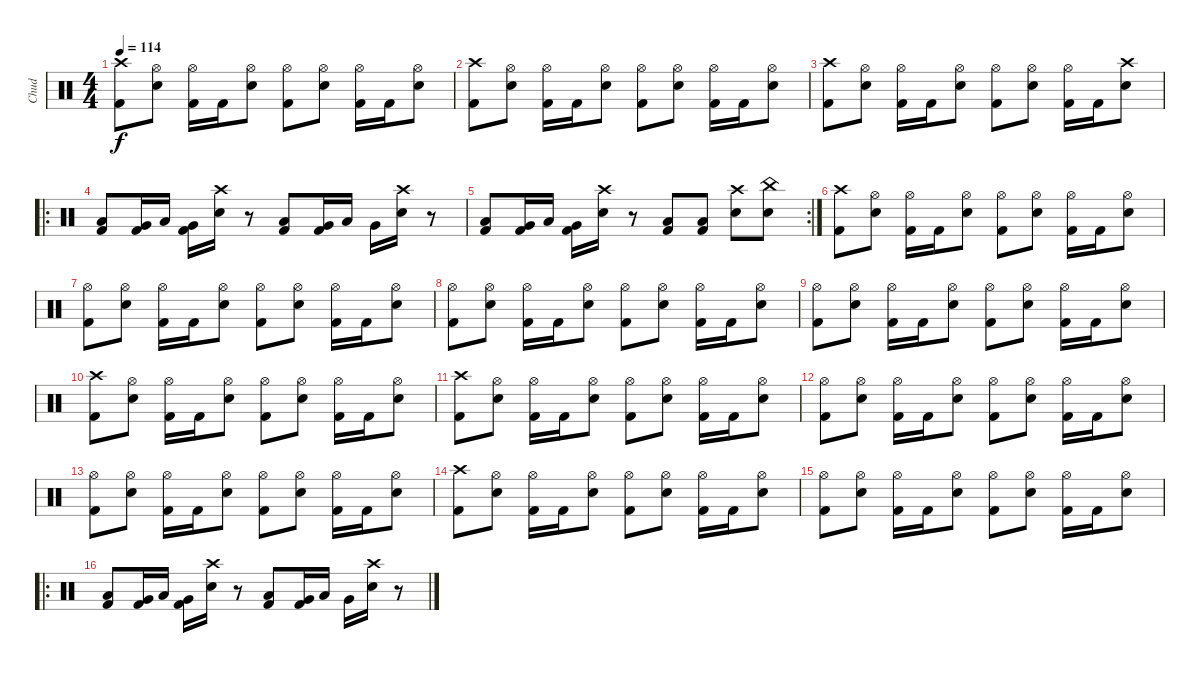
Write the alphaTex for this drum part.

\track ("Chud" "Chud") {instrument percussion}
\staff {score}
\articulation defaults
\ts (4 4)
\tempo 114
\clef neutral
\ks c
("Crash high (hit)" "Kick (hit) 2").8{dy f} ("Hi-Hat (open)" "Electric Snare (hit)").8 ("Hi-Hat (open)" "Kick (hit) 2").16 "Kick (hit) 2".16 ("Hi-Hat (open)" "Electric Snare (hit)").8 ("Hi-Hat (open)" "Kick (hit) 2").8 ("Hi-Hat (open)" "Electric Snare (hit)").8 ("Hi-Hat (open)" "Kick (hit) 2").16 "Kick (hit) 2".16 ("Hi-Hat (open)" "Electric Snare (hit)").8 |
("Crash high (hit)" "Kick (hit) 2").8 ("Hi-Hat (open)" "Electric Snare (hit)").8 ("Hi-Hat (open)" "Kick (hit) 2").16 "Kick (hit) 2".16 ("Hi-Hat (open)" "Electric Snare (hit)").8 ("Hi-Hat (open)" "Kick (hit) 2").8 ("Hi-Hat (open)" "Electric Snare (hit)").8 ("Hi-Hat (open)" "Kick (hit) 2").16 "Kick (hit) 2".16 ("Hi-Hat (open)" "Electric Snare (hit)").8 |
("Crash high (hit)" "Kick (hit) 2").8 ("Hi-Hat (open)" "Electric Snare (hit)").8 ("Hi-Hat (open)" "Kick (hit) 2").16 "Kick (hit) 2".16 ("Hi-Hat (open)" "Electric Snare (hit)").8 ("Hi-Hat (open)" "Kick (hit) 2").8 ("Hi-Hat (open)" "Electric Snare (hit)").8 ("Hi-Hat (open)" "Kick (hit) 2").16 "Kick (hit) 2".16 ("Crash high (hit)" "Electric Snare (hit)").8 |
\ro
("Low Tom (hit)" "Kick (hit) 2").8 ("Very Low Tom (hit)" "Kick (hit) 2").16 "Low Tom (hit)".16 ("Very Low Tom (hit)" "Kick (hit) 2").16 ("Crash high (hit)" "Electric Snare (hit)").16 r.8 ("Low Tom (hit)" "Kick (hit) 2").8 ("Very Low Tom (hit)" "Kick (hit) 2").16 "Low Tom (hit)".16 "Very Low Tom (hit)".16 ("Crash high (hit)" "Electric Snare (hit)").16 r.8 |
\rc 2
("Low Tom (hit)" "Kick (hit) 2").8 ("Very Low Tom (hit)" "Kick (hit) 2").16 "Low Tom (hit)".16 ("Very Low Tom (hit)" "Kick (hit) 2").16 ("Crash high (hit)" "Electric Snare (hit)").16 r.8 ("Low Tom (hit)" "Kick (hit) 2").8 ("Low Tom (hit)" "Kick (hit) 2").8 ("Crash high (hit)" "Electric Snare (hit)").8 ("China (hit)" "Electric Snare (hit)").8 |
("Crash high (hit)" "Kick (hit) 2").8 ("Hi-Hat (open)" "Electric Snare (hit)").8 ("Hi-Hat (open)" "Kick (hit) 2").16 "Kick (hit) 2".16 ("Hi-Hat (open)" "Electric Snare (hit)").8 ("Hi-Hat (open)" "Kick (hit) 2").8 ("Hi-Hat (open)" "Electric Snare (hit)").8 ("Hi-Hat (open)" "Kick (hit) 2").16 "Kick (hit) 2".16 ("Hi-Hat (open)" "Electric Snare (hit)").8 |
("Hi-Hat (open)" "Kick (hit) 2").8 ("Hi-Hat (open)" "Electric Snare (hit)").8 ("Hi-Hat (open)" "Kick (hit) 2").16 "Kick (hit) 2".16 ("Hi-Hat (open)" "Electric Snare (hit)").8 ("Hi-Hat (open)" "Kick (hit) 2").8 ("Hi-Hat (open)" "Electric Snare (hit)").8 ("Hi-Hat (open)" "Kick (hit) 2").16 "Kick (hit) 2".16 ("Hi-Hat (open)" "Electric Snare (hit)").8 |
("Hi-Hat (open)" "Kick (hit) 2").8 ("Hi-Hat (open)" "Electric Snare (hit)").8 ("Hi-Hat (open)" "Kick (hit) 2").16 "Kick (hit) 2".16 ("Hi-Hat (open)" "Electric Snare (hit)").8 ("Hi-Hat (open)" "Kick (hit) 2").8 ("Hi-Hat (open)" "Electric Snare (hit)").8 ("Hi-Hat (open)" "Kick (hit) 2").16 "Kick (hit) 2".16 ("Hi-Hat (open)" "Electric Snare (hit)").8 |
("Hi-Hat (open)" "Kick (hit) 2").8 ("Hi-Hat (open)" "Electric Snare (hit)").8 ("Hi-Hat (open)" "Kick (hit) 2").16 "Kick (hit) 2".16 ("Hi-Hat (open)" "Electric Snare (hit)").8 ("Hi-Hat (open)" "Kick (hit) 2").8 ("Hi-Hat (open)" "Electric Snare (hit)").8 ("Hi-Hat (open)" "Kick (hit) 2").16 "Kick (hit) 2".16 ("Hi-Hat (open)" "Electric Snare (hit)").8 |
("Crash high (hit)" "Kick (hit) 2").8 ("Hi-Hat (open)" "Electric Snare (hit)").8 ("Hi-Hat (open)" "Kick (hit) 2").16 "Kick (hit) 2".16 ("Hi-Hat (open)" "Electric Snare (hit)").8 ("Hi-Hat (open)" "Kick (hit) 2").8 ("Hi-Hat (open)" "Electric Snare (hit)").8 ("Hi-Hat (open)" "Kick (hit) 2").16 "Kick (hit) 2".16 ("Hi-Hat (open)" "Electric Snare (hit)").8 |
("Crash high (hit)" "Kick (hit) 2").8 ("Hi-Hat (open)" "Electric Snare (hit)").8 ("Hi-Hat (open)" "Kick (hit) 2").16 "Kick (hit) 2".16 ("Hi-Hat (open)" "Electric Snare (hit)").8 ("Hi-Hat (open)" "Kick (hit) 2").8 ("Hi-Hat (open)" "Electric Snare (hit)").8 ("Hi-Hat (open)" "Kick (hit) 2").16 "Kick (hit) 2".16 ("Hi-Hat (open)" "Electric Snare (hit)").8 |
("Hi-Hat (open)" "Kick (hit) 2").8 ("Hi-Hat (open)" "Electric Snare (hit)").8 ("Hi-Hat (open)" "Kick (hit) 2").16 "Kick (hit) 2".16 ("Hi-Hat (open)" "Electric Snare (hit)").8 ("Hi-Hat (open)" "Kick (hit) 2").8 ("Hi-Hat (open)" "Electric Snare (hit)").8 ("Hi-Hat (open)" "Kick (hit) 2").16 "Kick (hit) 2".16 ("Hi-Hat (open)" "Electric Snare (hit)").8 |
("Hi-Hat (open)" "Kick (hit) 2").8 ("Hi-Hat (open)" "Electric Snare (hit)").8 ("Hi-Hat (open)" "Kick (hit) 2").16 "Kick (hit) 2".16 ("Hi-Hat (open)" "Electric Snare (hit)").8 ("Hi-Hat (open)" "Kick (hit) 2").8 ("Hi-Hat (open)" "Electric Snare (hit)").8 ("Hi-Hat (open)" "Kick (hit) 2").16 "Kick (hit) 2".16 ("Hi-Hat (open)" "Electric Snare (hit)").8 |
("Crash high (hit)" "Kick (hit) 2").8 ("Hi-Hat (open)" "Electric Snare (hit)").8 ("Hi-Hat (open)" "Kick (hit) 2").16 "Kick (hit) 2".16 ("Hi-Hat (open)" "Electric Snare (hit)").8 ("Hi-Hat (open)" "Kick (hit) 2").8 ("Hi-Hat (open)" "Electric Snare (hit)").8 ("Hi-Hat (open)" "Kick (hit) 2").16 "Kick (hit) 2".16 ("Hi-Hat (open)" "Electric Snare (hit)").8 |
("Hi-Hat (open)" "Kick (hit) 2").8 ("Hi-Hat (open)" "Electric Snare (hit)").8 ("Hi-Hat (open)" "Kick (hit) 2").16 "Kick (hit) 2".16 ("Hi-Hat (open)" "Electric Snare (hit)").8 ("Hi-Hat (open)" "Kick (hit) 2").8 ("Hi-Hat (open)" "Electric Snare (hit)").8 ("Hi-Hat (open)" "Kick (hit) 2").16 "Kick (hit) 2".16 ("Hi-Hat (open)" "Electric Snare (hit)").8 |
\ro
("Low Tom (hit)" "Kick (hit) 2").8 ("Very Low Tom (hit)" "Kick (hit) 2").16 "Low Tom (hit)".16 ("Very Low Tom (hit)" "Kick (hit) 2").16 ("Crash high (hit)" "Electric Snare (hit)").16 r.8 ("Low Tom (hit)" "Kick (hit) 2").8 ("Very Low Tom (hit)" "Kick (hit) 2").16 "Low Tom (hit)".16 "Very Low Tom (hit)".16 ("Crash high (hit)" "Electric Snare (hit)").16 r.8
